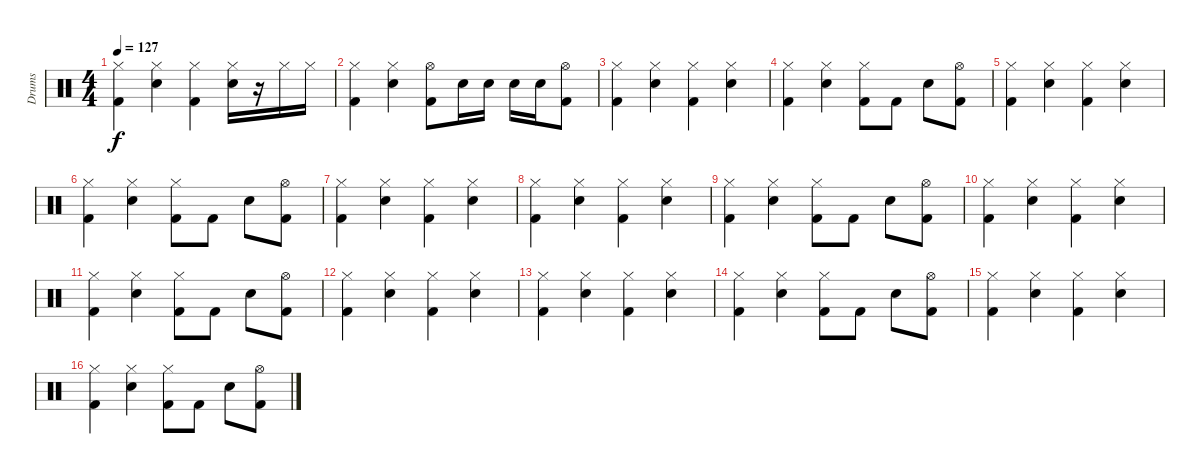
\track ("Drums" "Drums") {instrument percussion}
\staff {score}
\articulation defaults
\ts (4 4)
\tempo 127
\clef neutral
\ks c
("Hi-Hat (closed)" "Kick (hit) 2").4{dy f} ("Hi-Hat (closed)" "Snare (hit) 2").4 ("Hi-Hat (closed)" "Kick (hit) 2").4 ("Hi-Hat (closed)" "Snare (hit) 2").16 r.16 "Hi-Hat (closed)".16 "Hi-Hat (closed)".16 |
("Hi-Hat (closed)" "Kick (hit) 2").4 ("Hi-Hat (closed)" "Snare (hit) 2").4 ("Hi-Hat (open)" "Kick (hit) 2").8 "Snare (hit) 2".16 "Snare (hit) 2".16 "Snare (hit) 2".16 "Snare (hit) 2".16 ("Hi-Hat (open)" "Kick (hit) 2").8 |
("Hi-Hat (closed)" "Kick (hit) 2").4 ("Hi-Hat (closed)" "Snare (hit) 2").4 ("Hi-Hat (closed)" "Kick (hit) 2").4 ("Hi-Hat (closed)" "Snare (hit) 2").4 |
("Hi-Hat (closed)" "Kick (hit) 2").4 ("Hi-Hat (closed)" "Snare (hit) 2").4 ("Hi-Hat (closed)" "Kick (hit) 2").8 "Kick (hit) 2".8 "Snare (hit) 2".8 ("Hi-Hat (open)" "Kick (hit) 2").8 |
("Hi-Hat (closed)" "Kick (hit) 2").4 ("Hi-Hat (closed)" "Snare (hit) 2").4 ("Hi-Hat (closed)" "Kick (hit) 2").4 ("Hi-Hat (closed)" "Snare (hit) 2").4 |
("Hi-Hat (closed)" "Kick (hit) 2").4 ("Hi-Hat (closed)" "Snare (hit) 2").4 ("Hi-Hat (closed)" "Kick (hit) 2").8 "Kick (hit) 2".8 "Snare (hit) 2".8 ("Hi-Hat (open)" "Kick (hit) 2").8 |
("Hi-Hat (closed)" "Kick (hit) 2").4 ("Hi-Hat (closed)" "Snare (hit) 2").4 ("Hi-Hat (closed)" "Kick (hit) 2").4 ("Hi-Hat (closed)" "Snare (hit) 2").4 |
("Hi-Hat (closed)" "Kick (hit) 2").4 ("Hi-Hat (closed)" "Snare (hit) 2").4 ("Hi-Hat (closed)" "Kick (hit) 2").4 ("Hi-Hat (closed)" "Snare (hit) 2").4 |
("Hi-Hat (closed)" "Kick (hit) 2").4 ("Hi-Hat (closed)" "Snare (hit) 2").4 ("Hi-Hat (closed)" "Kick (hit) 2").8 "Kick (hit) 2".8 "Snare (hit) 2".8 ("Hi-Hat (open)" "Kick (hit) 2").8 |
("Hi-Hat (closed)" "Kick (hit) 2").4 ("Hi-Hat (closed)" "Snare (hit) 2").4 ("Hi-Hat (closed)" "Kick (hit) 2").4 ("Hi-Hat (closed)" "Snare (hit) 2").4 |
("Hi-Hat (closed)" "Kick (hit) 2").4 ("Hi-Hat (closed)" "Snare (hit) 2").4 ("Hi-Hat (closed)" "Kick (hit) 2").8 "Kick (hit) 2".8 "Snare (hit) 2".8 ("Hi-Hat (open)" "Kick (hit) 2").8 |
("Hi-Hat (closed)" "Kick (hit) 2").4 ("Hi-Hat (closed)" "Snare (hit) 2").4 ("Hi-Hat (closed)" "Kick (hit) 2").4 ("Hi-Hat (closed)" "Snare (hit) 2").4 |
("Hi-Hat (closed)" "Kick (hit) 2").4 ("Hi-Hat (closed)" "Snare (hit) 2").4 ("Hi-Hat (closed)" "Kick (hit) 2").4 ("Hi-Hat (closed)" "Snare (hit) 2").4 |
("Hi-Hat (closed)" "Kick (hit) 2").4 ("Hi-Hat (closed)" "Snare (hit) 2").4 ("Hi-Hat (closed)" "Kick (hit) 2").8 "Kick (hit) 2".8 "Snare (hit) 2".8 ("Hi-Hat (open)" "Kick (hit) 2").8 |
("Hi-Hat (closed)" "Kick (hit) 2").4 ("Hi-Hat (closed)" "Snare (hit) 2").4 ("Hi-Hat (closed)" "Kick (hit) 2").4 ("Hi-Hat (closed)" "Snare (hit) 2").4 |
("Hi-Hat (closed)" "Kick (hit) 2").4 ("Hi-Hat (closed)" "Snare (hit) 2").4 ("Hi-Hat (closed)" "Kick (hit) 2").8 "Kick (hit) 2".8 "Snare (hit) 2".8 ("Hi-Hat (open)" "Kick (hit) 2").8
